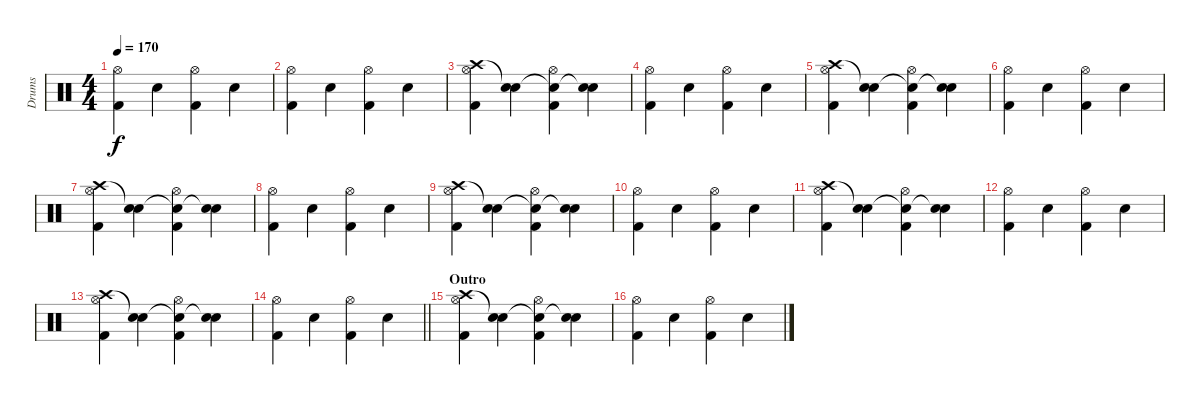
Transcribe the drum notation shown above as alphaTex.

\track ("Drums" "Drums") {instrument percussion}
\staff {score}
\articulation defaults
\ts (4 4)
\tempo 170
\clef neutral
\ks c
("Hi-Hat (open)" "Kick (hit) 2").4{dy f} "Snare (hit) 2".4 ("Hi-Hat (open)" "Kick (hit) 2").4 "Snare (hit) 2".4 |
("Hi-Hat (open)" "Kick (hit) 2").4 "Snare (hit) 2".4 ("Hi-Hat (open)" "Kick (hit) 2").4 "Snare (hit) 2".4 |
("Crash high (hit)" "Hi-Hat (open)" "Kick (hit) 2").4 ("Snare (hit)"{t} "Snare (hit) 2").4 ("Snare (hit)"{t} "Hi-Hat (open)" "Kick (hit) 2").4 ("Snare (hit)"{t} "Snare (hit) 2").4 |
("Hi-Hat (open)" "Kick (hit) 2").4 "Snare (hit) 2".4 ("Hi-Hat (open)" "Kick (hit) 2").4 "Snare (hit) 2".4 |
("Crash high (hit)" "Hi-Hat (open)" "Kick (hit) 2").4 ("Snare (hit)"{t} "Snare (hit) 2").4 ("Snare (hit)"{t} "Hi-Hat (open)" "Kick (hit) 2").4 ("Snare (hit)"{t} "Snare (hit) 2").4 |
("Hi-Hat (open)" "Kick (hit) 2").4 "Snare (hit) 2".4 ("Hi-Hat (open)" "Kick (hit) 2").4 "Snare (hit) 2".4 |
("Crash high (hit)" "Hi-Hat (open)" "Kick (hit) 2").4 ("Snare (hit)"{t} "Snare (hit) 2").4 ("Snare (hit)"{t} "Hi-Hat (open)" "Kick (hit) 2").4 ("Snare (hit)"{t} "Snare (hit) 2").4 |
("Hi-Hat (open)" "Kick (hit) 2").4 "Snare (hit) 2".4 ("Hi-Hat (open)" "Kick (hit) 2").4 "Snare (hit) 2".4 |
("Crash high (hit)" "Hi-Hat (open)" "Kick (hit) 2").4 ("Snare (hit)"{t} "Snare (hit) 2").4 ("Snare (hit)"{t} "Hi-Hat (open)" "Kick (hit) 2").4 ("Snare (hit)"{t} "Snare (hit) 2").4 |
("Hi-Hat (open)" "Kick (hit) 2").4 "Snare (hit) 2".4 ("Hi-Hat (open)" "Kick (hit) 2").4 "Snare (hit) 2".4 |
("Crash high (hit)" "Hi-Hat (open)" "Kick (hit) 2").4 ("Snare (hit)"{t} "Snare (hit) 2").4 ("Snare (hit)"{t} "Hi-Hat (open)" "Kick (hit) 2").4 ("Snare (hit)"{t} "Snare (hit) 2").4 |
("Hi-Hat (open)" "Kick (hit) 2").4 "Snare (hit) 2".4 ("Hi-Hat (open)" "Kick (hit) 2").4 "Snare (hit) 2".4 |
("Crash high (hit)" "Hi-Hat (open)" "Kick (hit) 2").4 ("Snare (hit)"{t} "Snare (hit) 2").4 ("Snare (hit)"{t} "Hi-Hat (open)" "Kick (hit) 2").4 ("Snare (hit)"{t} "Snare (hit) 2").4 |
\barLineRight lightlight
("Hi-Hat (open)" "Kick (hit) 2").4 "Snare (hit) 2".4 ("Hi-Hat (open)" "Kick (hit) 2").4 "Snare (hit) 2".4 |
\section ("" "Outro")
("Crash high (hit)" "Hi-Hat (open)" "Kick (hit) 2").4 ("Snare (hit)"{t} "Snare (hit) 2").4 ("Snare (hit)"{t} "Hi-Hat (open)" "Kick (hit) 2").4 ("Snare (hit)"{t} "Snare (hit) 2").4 |
("Hi-Hat (open)" "Kick (hit) 2").4 "Snare (hit) 2".4 ("Hi-Hat (open)" "Kick (hit) 2").4 "Snare (hit) 2".4
